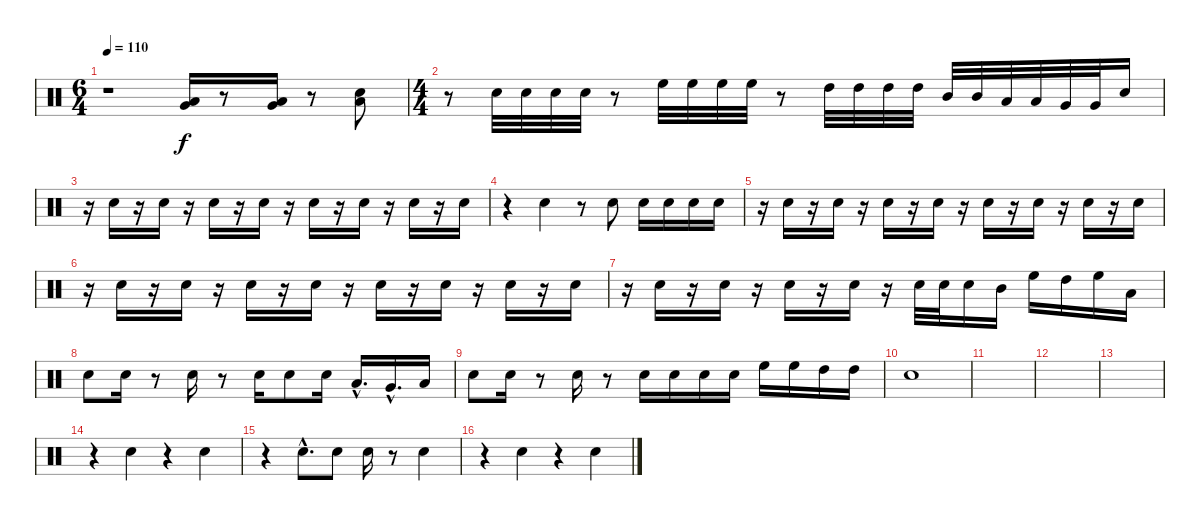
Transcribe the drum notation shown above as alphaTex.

\track "" {instrument percussion}
\staff {score}
\articulation defaults
\ts (6 4)
\tempo 110
\clef neutral
\ks c
r.1{dy f} ("Very Low Tom (hit)" "Low Tom (hit)").16 r.8 ("Low Floor Tom (hit)" "Very Low Tom (hit)").16 r.8 ("Low Tom (hit)" "Electric Snare (hit)").8 |
\ts (4 4)
r.8 "Electric Snare (hit)".32 "Electric Snare (hit)".32 "Electric Snare (hit)".32 "Electric Snare (hit)".32 r.8 "High Floor Tom (hit)".32 "High Floor Tom (hit)".32 "High Floor Tom (hit)".32 "High Floor Tom (hit)".32 r.8 "High Tom (hit)".32 "High Tom (hit)".32 "High Tom (hit)".32 "High Tom (hit)".32 "Mid Tom (hit)".32 "Mid Tom (hit)".32 "Low Tom (hit)".32 "Low Tom (hit)".32 "Very Low Tom (hit)".32 "Very Low Tom (hit)".32 "Electric Snare (hit)".16 |
r.16 "Electric Snare (hit)".16 r.16 "Electric Snare (hit)".16 r.16 "Electric Snare (hit)".16 r.16 "Electric Snare (hit)".16 r.16 "Electric Snare (hit)".16 r.16 "Electric Snare (hit)".16 r.16 "Electric Snare (hit)".16 r.16 "Electric Snare (hit)".16 |
r.4 "Electric Snare (hit)".4 r.8 "Electric Snare (hit)".8 "Electric Snare (hit)".16 "Electric Snare (hit)".16 "Electric Snare (hit)".16 "Electric Snare (hit)".16 |
r.16 "Electric Snare (hit)".16 r.16 "Electric Snare (hit)".16 r.16 "Electric Snare (hit)".16 r.16 "Electric Snare (hit)".16 r.16 "Electric Snare (hit)".16 r.16 "Electric Snare (hit)".16 r.16 "Electric Snare (hit)".16 r.16 "Electric Snare (hit)".16 |
r.16 "Electric Snare (hit)".16 r.16 "Electric Snare (hit)".16 r.16 "Electric Snare (hit)".16 r.16 "Electric Snare (hit)".16 r.16 "Electric Snare (hit)".16 r.16 "Electric Snare (hit)".16 r.16 "Electric Snare (hit)".16 r.16 "Electric Snare (hit)".16 |
r.16 "Electric Snare (hit)".16 r.16 "Electric Snare (hit)".16 r.16 "Electric Snare (hit)".16 r.16 "Electric Snare (hit)".16 r.16 "Electric Snare (hit)".32 "Electric Snare (hit)".32 "Electric Snare (hit)".16 "Mid Tom (hit)".16 "High Floor Tom (hit)".16 "High Tom (hit)".16 "High Floor Tom (hit)".16 "Low Tom (hit)".16 |
"Electric Snare (hit)".8 "Electric Snare (hit)".16 r.8 "Electric Snare (hit)".16 r.8 "Electric Snare (hit)".16 "Electric Snare (hit)".8 "Electric Snare (hit)".16 "Low Tom (hit)"{hac}.16{d} "Very Low Tom (hit)"{hac}.16{d} "Low Floor Tom (hit)".16 |
"Electric Snare (hit)".8 "Electric Snare (hit)".16 r.8 "Electric Snare (hit)".16 r.8 "Electric Snare (hit)".16 "Electric Snare (hit)".16 "Electric Snare (hit)".16 "Electric Snare (hit)".16 "High Floor Tom (hit)".16 "High Floor Tom (hit)".16 "High Tom (hit)".16 "High Tom (hit)".16 |
"Electric Snare (hit)".1 |
|
|
|
r.4 "Electric Snare (hit)".4 r.4 "Electric Snare (hit)".4 |
r.4 "Electric Snare (hit)"{hac}.8{d} "Electric Snare (hit)".8 "Electric Snare (hit)".16 r.8 "Electric Snare (hit)".4 |
r.4 "Electric Snare (hit)".4 r.4 "Electric Snare (hit)".4
